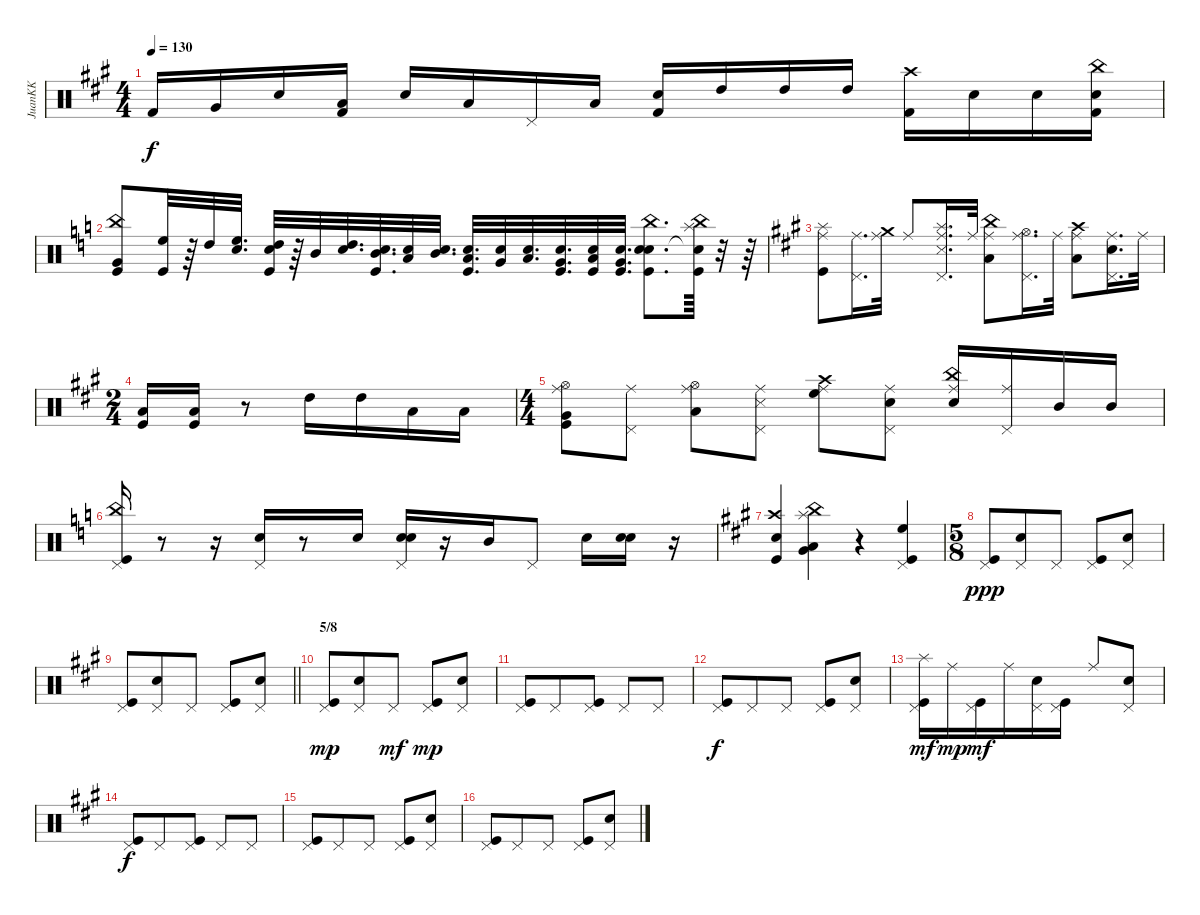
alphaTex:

\track ("JuanKK" "JuanKK") {instrument percussion}
\staff {score}
\articulation defaults
\ts (4 4)
\tempo 130
\clef neutral
\ks a "Kick (hit) 2".16{dy f} "Very Low Tom (hit)".16 "Electric Snare (hit)".16
("Kick (hit) 2" "Low Tom (hit)").16 "Electric Snare (hit)".16 "Low Tom (hit)".16 "Pedal Hi-Hat (hit)".16 "Low Tom (hit)".16 ("Electric Snare (hit)" "Kick (hit) 2").16 "High Tom (hit)".16 "High Tom (hit)".16 "High Tom (hit)".16 ("Kick (hit) 2" "Crash high (hit)").16 "Electric Snare (hit)".16 "Electric Snare (hit)".16 ("Kick (hit) 2" "Electric Snare (hit)" "China (hit)").16 |
\ks c
("Kick (hit)" "Very Low Tom (hit)" "China (hit)").8 ("Kick (hit)" "High Floor Tom (hit)").32 r.64 "High Tom (hit)".32 ("Snare (hit)" "High Floor Tom (hit)").32{d} ("Snare (hit)" "Kick (hit)" "High Tom (hit)").32 r.64 "Mid Tom (hit)".32 ("Snare (hit)" "High Tom (hit)").32{d} ("Snare (hit)" "Kick (hit)" "Mid Tom (hit)").32{d} ("Snare (hit)" "Low Tom (hit)").32 ("Snare (hit)" "Mid Tom (hit)").32{d} ("Snare (hit)" "Kick (hit)" "Low Tom (hit)").32{d} ("Snare (hit)" "Very Low Tom (hit)").32 ("Snare (hit)" "Low Tom (hit)").32{d} ("Snare (hit)" "Kick (hit)" "Very Low Tom (hit)").32{d} ("Snare (hit)" "Kick (hit)" "Low Floor Tom (hit)").32 ("Snare (hit)" "Kick (hit)" "Very Low Tom (hit)").32{d} ("Snare (hit)" "Kick (hit)" "Snare (hit) 2" "China (hit)").8{d} ("Snare (hit)"{t} "Kick (hit)" "China (hit)" "Splash (hit)").64 r.32 r.64 |
\ks a
("Kick (hit)" "Ride (middle)" "Splash (hit)").8 ("Pedal Hi-Hat (hit)" "Ride (middle)").16{d} ("Ride (middle)" "Crash medium (hit)").32 "Ride (middle)".8 ("Metronome (hit)" "Pedal Hi-Hat (hit)" "Ride (middle)" "Splash (hit)").16{d} "Ride (middle)".32 ("Low Tom (hit)" "Ride (middle)" "China (hit)").8 ("Pedal Hi-Hat (hit)" "Ride (middle)" "Hi-Hat (open)").16{d} "Ride (middle)".32 ("Low Tom (hit)" "Ride (middle)" "Crash high (hit)").8 ("Electric Snare (hit)" "Pedal Hi-Hat (hit)" "Ride (middle)").16{d} "Ride (middle)".32 |
\ts (2 4)
("Kick (hit)" "Low Floor Tom (hit)").16 ("Kick (hit)" "Low Floor Tom (hit)").16 r.8 "High Tom (hit)".16 "High Tom (hit)".16 "Low Tom (hit)".16 "Low Tom (hit)".16 |
\ts (4 4)
("Kick (hit)" "Very Low Tom (hit)" "Ride (middle)" "Hi-Hat (open)").8 ("Pedal Hi-Hat (hit)" "Ride (middle)").8 ("Low Tom (hit)" "Ride (middle)" "Hi-Hat (open)").8 ("Metronome (hit)" "Pedal Hi-Hat (hit)" "Ride (middle)").8 ("Crash high (hit)" "Ride (middle)" "High Floor Tom (hit)").8 ("Electric Snare (hit)" "Pedal Hi-Hat (hit)" "Ride (middle)").8 ("Electric Snare (hit)" "Ride (middle)" "China (hit)").16 ("Pedal Hi-Hat (hit)" "Ride (middle)").16 "Mid Tom (hit)".16 "Mid Tom (hit)".16 |
\ks c
("Kick (hit)" "China (hit)" "Pedal Hi-Hat (hit)").16 r.8 r.16 ("Electric Snare (hit)" "Pedal Hi-Hat (hit)").16 r.8 "Electric Snare (hit)".16 ("Snare (hit)" "Electric Snare (hit)" "Pedal Hi-Hat (hit)").16 r.16 "Mid Tom (hit)".16 "Pedal Hi-Hat (hit)".8 "Electric Snare (hit)".16 ("Snare (hit)" "Electric Snare (hit)").16 r.16 |
\ks a
("Kick (hit)" "Electric Snare (hit)" "Crash high (hit)").4 ("Low Floor Tom (hit)" "Very Low Tom (hit)" "China (hit)" "Splash (hit)").4 r.4 ("Kick (hit)" "Pedal Hi-Hat (hit)" "High Floor Tom (hit)").4 |
\ts (5 8)
("Kick (hit)" "Pedal Hi-Hat (hit)").8{dy ppp} ("Electric Snare (hit)" "Pedal Hi-Hat (hit)").8 "Pedal Hi-Hat (hit)".8 ("Kick (hit)" "Pedal Hi-Hat (hit)").8 ("Electric Snare (hit)" "Pedal Hi-Hat (hit)").8 |
\barLineRight lightlight
("Kick (hit)" "Pedal Hi-Hat (hit)").8 ("Electric Snare (hit)" "Pedal Hi-Hat (hit)").8 "Pedal Hi-Hat (hit)".8 ("Kick (hit)" "Pedal Hi-Hat (hit)").8 ("Electric Snare (hit)" "Pedal Hi-Hat (hit)").8 |
\section ("" "5/8")
("Kick (hit)" "Pedal Hi-Hat (hit)").8{dy mp} ("Electric Snare (hit)" "Pedal Hi-Hat (hit)").8 "Pedal Hi-Hat (hit)".8{dy mf} ("Kick (hit)" "Pedal Hi-Hat (hit)").8{dy mp} ("Electric Snare (hit)" "Pedal Hi-Hat (hit)").8 |
("Kick (hit)" "Pedal Hi-Hat (hit)").8 "Pedal Hi-Hat (hit)".8 ("Kick (hit)" "Pedal Hi-Hat (hit)").8 "Pedal Hi-Hat (hit)".8 "Pedal Hi-Hat (hit)".8 |
("Kick (hit)" "Pedal Hi-Hat (hit)").8{dy f} "Pedal Hi-Hat (hit)".8 "Pedal Hi-Hat (hit)".8 ("Kick (hit)" "Pedal Hi-Hat (hit)").8 ("Electric Snare (hit)" "Pedal Hi-Hat (hit)").8 |
("Kick (hit)" "Pedal Hi-Hat (hit)" "Splash (hit)").16{dy mf} "Ride (middle)".16{dy mp} ("Kick (hit)" "Pedal Hi-Hat (hit)").16{dy mf} "Ride (middle)".16 ("Electric Snare (hit)" "Pedal Hi-Hat (hit)").16 ("Kick (hit)" "Pedal Hi-Hat (hit)").16 "Ride (middle)".8 ("Electric Snare (hit)" "Pedal Hi-Hat (hit)").8 |
("Kick (hit)" "Pedal Hi-Hat (hit)").8{dy f} "Pedal Hi-Hat (hit)".8 ("Kick (hit)" "Pedal Hi-Hat (hit)").8 "Pedal Hi-Hat (hit)".8 "Pedal Hi-Hat (hit)".8 |
("Kick (hit)" "Pedal Hi-Hat (hit)").8 "Pedal Hi-Hat (hit)".8 "Pedal Hi-Hat (hit)".8 ("Kick (hit)" "Pedal Hi-Hat (hit)").8 ("Electric Snare (hit)" "Pedal Hi-Hat (hit)").8 |
("Kick (hit)" "Pedal Hi-Hat (hit)").8 "Pedal Hi-Hat (hit)".8 "Pedal Hi-Hat (hit)".8 ("Kick (hit)" "Pedal Hi-Hat (hit)").8 ("Electric Snare (hit)" "Pedal Hi-Hat (hit)").8
